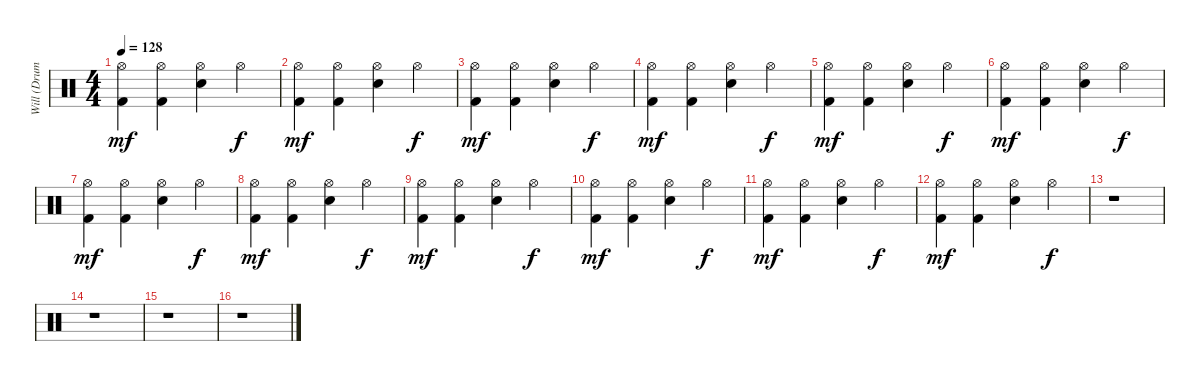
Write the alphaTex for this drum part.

\track ("Will (Drums)" "Will (Drum") {instrument percussion}
\staff {score}
\articulation defaults
\ts (4 4)
\tempo 128
\clef neutral
\ks c
("Kick (hit) 2" "Hi-Hat (open)").4{dy mf} ("Kick (hit) 2" "Hi-Hat (open)").4 ("Snare (hit) 2" "Hi-Hat (open)").4 "Hi-Hat (open)".4{dy f} |
("Kick (hit) 2" "Hi-Hat (open)").4{dy mf} ("Kick (hit) 2" "Hi-Hat (open)").4 ("Snare (hit) 2" "Hi-Hat (open)").4 "Hi-Hat (open)".4{dy f} |
("Kick (hit) 2" "Hi-Hat (open)").4{dy mf} ("Kick (hit) 2" "Hi-Hat (open)").4 ("Snare (hit) 2" "Hi-Hat (open)").4 "Hi-Hat (open)".4{dy f} |
("Kick (hit) 2" "Hi-Hat (open)").4{dy mf} ("Kick (hit) 2" "Hi-Hat (open)").4 ("Snare (hit) 2" "Hi-Hat (open)").4 "Hi-Hat (open)".4{dy f} |
("Kick (hit) 2" "Hi-Hat (open)").4{dy mf} ("Kick (hit) 2" "Hi-Hat (open)").4 ("Snare (hit) 2" "Hi-Hat (open)").4 "Hi-Hat (open)".4{dy f} |
("Kick (hit) 2" "Hi-Hat (open)").4{dy mf} ("Kick (hit) 2" "Hi-Hat (open)").4 ("Snare (hit) 2" "Hi-Hat (open)").4 "Hi-Hat (open)".4{dy f} |
("Kick (hit) 2" "Hi-Hat (open)").4{dy mf} ("Kick (hit) 2" "Hi-Hat (open)").4 ("Snare (hit) 2" "Hi-Hat (open)").4 "Hi-Hat (open)".4{dy f} |
("Kick (hit) 2" "Hi-Hat (open)").4{dy mf} ("Kick (hit) 2" "Hi-Hat (open)").4 ("Snare (hit) 2" "Hi-Hat (open)").4 "Hi-Hat (open)".4{dy f} |
("Kick (hit) 2" "Hi-Hat (open)").4{dy mf} ("Kick (hit) 2" "Hi-Hat (open)").4 ("Snare (hit) 2" "Hi-Hat (open)").4 "Hi-Hat (open)".4{dy f} |
("Kick (hit) 2" "Hi-Hat (open)").4{dy mf} ("Kick (hit) 2" "Hi-Hat (open)").4 ("Snare (hit) 2" "Hi-Hat (open)").4 "Hi-Hat (open)".4{dy f} |
("Kick (hit) 2" "Hi-Hat (open)").4{dy mf} ("Kick (hit) 2" "Hi-Hat (open)").4 ("Snare (hit) 2" "Hi-Hat (open)").4 "Hi-Hat (open)".4{dy f} |
("Kick (hit) 2" "Hi-Hat (open)").4{dy mf} ("Kick (hit) 2" "Hi-Hat (open)").4 ("Snare (hit) 2" "Hi-Hat (open)").4 "Hi-Hat (open)".4{dy f} |
r.1 |
r.1 |
r.1 |
r.1
